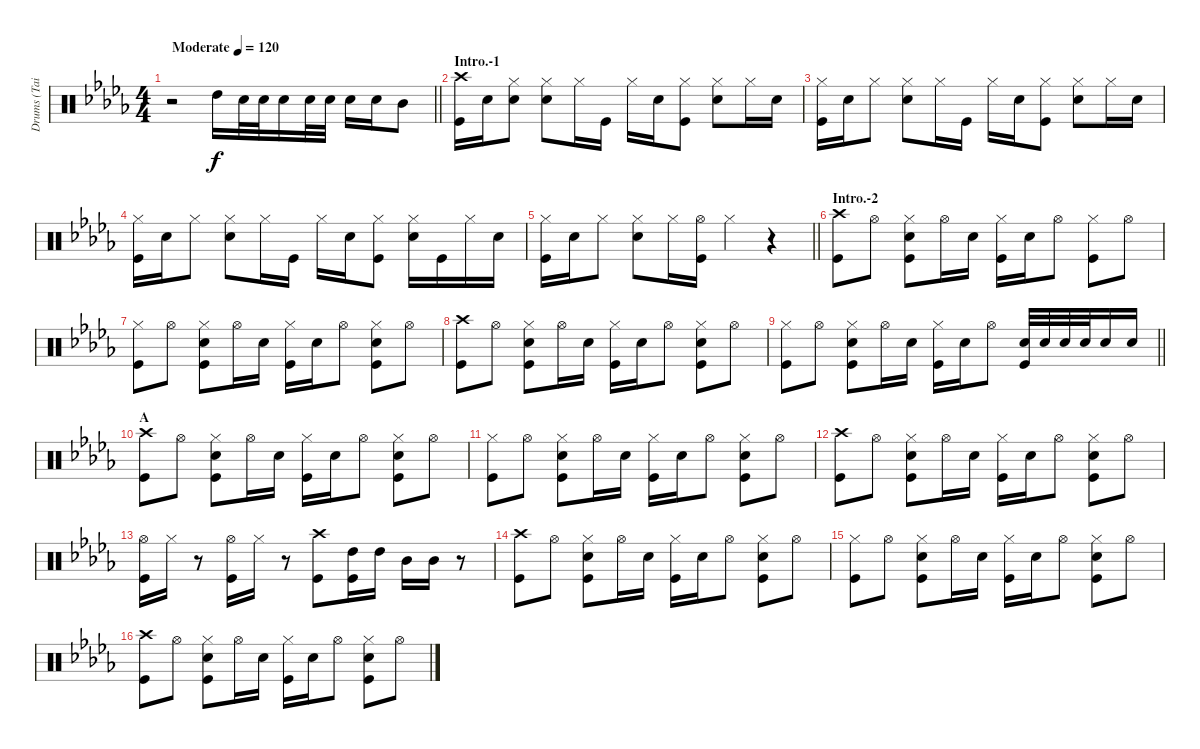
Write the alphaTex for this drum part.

\track ("Drums (Tainaka Ritsu)" "Drums (Tai") {instrument percussion}
\staff {score}
\articulation defaults
\ts (4 4)
\tempo (120 "Moderate")
\clef neutral
\barLineRight lightlight
\ks db
r.2{dy f} "High Tom (hit)".16 "Snare (hit) 2".32 "Snare (hit) 2".32 "Snare (hit) 2".16 "Snare (hit) 2".32 "Snare (hit) 2".32 "Snare (hit) 2".16 "Snare (hit) 2".16 "Mid Tom (hit)".8 |
\section ("" "Intro.-1")
("Crash high (hit)" "Kick (hit)").16 "Snare (hit) 2".16 ("Hi-Hat (closed)" "Snare (hit) 2").8 ("Hi-Hat (closed)" "Snare (hit) 2").8 "Hi-Hat (closed)".16 "Kick (hit)".16 "Hi-Hat (closed)".16 "Snare (hit) 2".16 ("Hi-Hat (closed)" "Kick (hit)").8 ("Hi-Hat (closed)" "Snare (hit) 2").8 "Hi-Hat (closed)".16 "Snare (hit) 2".16 |
("Hi-Hat (closed)" "Kick (hit)").16 "Snare (hit) 2".16 "Hi-Hat (closed)".8 ("Hi-Hat (closed)" "Snare (hit) 2").8 "Hi-Hat (closed)".16 "Kick (hit)".16 "Hi-Hat (closed)".16 "Snare (hit) 2".16 ("Hi-Hat (closed)" "Kick (hit)").8 ("Hi-Hat (closed)" "Snare (hit) 2").8 "Hi-Hat (closed)".16 "Snare (hit) 2".16 |
("Hi-Hat (closed)" "Kick (hit)").16 "Snare (hit) 2".16 "Hi-Hat (closed)".8 ("Hi-Hat (closed)" "Snare (hit) 2").8 "Hi-Hat (closed)".16 "Kick (hit)".16 "Hi-Hat (closed)".16 "Snare (hit) 2".16 ("Hi-Hat (closed)" "Kick (hit)").8 ("Hi-Hat (closed)" "Snare (hit) 2").16 "Kick (hit)".16 "Hi-Hat (closed)".16 "Snare (hit) 2".16 |
\barLineRight lightlight
("Hi-Hat (closed)" "Kick (hit)").16 "Snare (hit) 2".16 "Hi-Hat (closed)".8 ("Hi-Hat (closed)" "Snare (hit) 2").8 "Hi-Hat (closed)".16 ("Hi-Hat (open)" "Kick (hit)").16 "Hi-Hat (closed)".4 r.4 |
\section ("" "Intro.-2")
("Crash high (hit)" "Kick (hit)").8 "Hi-Hat (open)".8 ("Hi-Hat (closed)" "Snare (hit) 2" "Kick (hit)").8 "Hi-Hat (open)".16 "Snare (hit) 2".16 ("Hi-Hat (closed)" "Kick (hit)").16 "Snare (hit) 2".16 "Hi-Hat (open)".8 ("Hi-Hat (closed)" "Kick (hit)").8 "Hi-Hat (open)".8 |
("Hi-Hat (closed)" "Kick (hit)").8 "Hi-Hat (open)".8 ("Hi-Hat (closed)" "Snare (hit) 2" "Kick (hit)").8 "Hi-Hat (open)".16 "Snare (hit) 2".16 ("Hi-Hat (closed)" "Kick (hit)").16 "Snare (hit) 2".16 "Hi-Hat (open)".8 ("Hi-Hat (closed)" "Snare (hit) 2" "Kick (hit)").8 "Hi-Hat (open)".8 |
("Crash high (hit)" "Kick (hit)").8 "Hi-Hat (open)".8 ("Hi-Hat (closed)" "Snare (hit) 2" "Kick (hit)").8 "Hi-Hat (open)".16 "Snare (hit) 2".16 ("Hi-Hat (closed)" "Kick (hit)").16 "Snare (hit) 2".16 "Hi-Hat (open)".8 ("Hi-Hat (closed)" "Snare (hit) 2" "Kick (hit)").8 "Hi-Hat (open)".8 |
\barLineRight lightlight
("Hi-Hat (closed)" "Kick (hit)").8 "Hi-Hat (open)".8 ("Hi-Hat (closed)" "Snare (hit) 2" "Kick (hit)").8 "Hi-Hat (open)".16 "Snare (hit) 2".16 ("Hi-Hat (closed)" "Kick (hit)").16 "Snare (hit) 2".16 "Hi-Hat (open)".8 ("Snare (hit) 2" "Kick (hit)").32 "Snare (hit) 2".32 "Snare (hit) 2".32 "Snare (hit) 2".32 "Snare (hit) 2".16 "Snare (hit) 2".16 |
\section ("" "A")
("Crash high (hit)" "Kick (hit)").8 "Hi-Hat (open)".8 ("Hi-Hat (closed)" "Snare (hit) 2" "Kick (hit)").8 "Hi-Hat (open)".16 "Snare (hit) 2".16 ("Hi-Hat (closed)" "Kick (hit)").16 "Snare (hit) 2".16 "Hi-Hat (open)".8 ("Hi-Hat (closed)" "Snare (hit) 2" "Kick (hit)").8 "Hi-Hat (open)".8 |
("Hi-Hat (closed)" "Kick (hit)").8 "Hi-Hat (open)".8 ("Hi-Hat (closed)" "Snare (hit) 2" "Kick (hit)").8 "Hi-Hat (open)".16 "Snare (hit) 2".16 ("Hi-Hat (closed)" "Kick (hit)").16 "Snare (hit) 2".16 "Hi-Hat (open)".8 ("Hi-Hat (closed)" "Snare (hit) 2" "Kick (hit)").8 "Hi-Hat (open)".8 |
("Crash high (hit)" "Kick (hit)").8 "Hi-Hat (open)".8 ("Hi-Hat (closed)" "Snare (hit) 2" "Kick (hit)").8 "Hi-Hat (open)".16 "Snare (hit) 2".16 ("Hi-Hat (closed)" "Kick (hit)").16 "Snare (hit) 2".16 "Hi-Hat (open)".8 ("Hi-Hat (closed)" "Snare (hit) 2" "Kick (hit)").8 "Hi-Hat (open)".8 |
("Hi-Hat (open)" "Kick (hit)").16 "Hi-Hat (closed)".16 r.8 ("Hi-Hat (open)" "Kick (hit)").16 "Hi-Hat (closed)".16 r.8 ("Crash high (hit)" "Kick (hit)").8 ("High Tom (hit)" "Kick (hit)").16 "High Tom (hit)".16 "Mid Tom (hit)".16 "Mid Tom (hit)".16 r.8 |
("Crash high (hit)" "Kick (hit)").8 "Hi-Hat (open)".8 ("Hi-Hat (closed)" "Snare (hit) 2" "Kick (hit)").8 "Hi-Hat (open)".16 "Snare (hit) 2".16 ("Hi-Hat (closed)" "Kick (hit)").16 "Snare (hit) 2".16 "Hi-Hat (open)".8 ("Hi-Hat (closed)" "Snare (hit) 2" "Kick (hit)").8 "Hi-Hat (open)".8 |
("Hi-Hat (closed)" "Kick (hit)").8 "Hi-Hat (open)".8 ("Hi-Hat (closed)" "Snare (hit) 2" "Kick (hit)").8 "Hi-Hat (open)".16 "Snare (hit) 2".16 ("Hi-Hat (closed)" "Kick (hit)").16 "Snare (hit) 2".16 "Hi-Hat (open)".8 ("Hi-Hat (closed)" "Snare (hit) 2" "Kick (hit)").8 "Hi-Hat (open)".8 |
("Crash high (hit)" "Kick (hit)").8 "Hi-Hat (open)".8 ("Hi-Hat (closed)" "Snare (hit) 2" "Kick (hit)").8 "Hi-Hat (open)".16 "Snare (hit) 2".16 ("Hi-Hat (closed)" "Kick (hit)").16 "Snare (hit) 2".16 "Hi-Hat (open)".8 ("Hi-Hat (closed)" "Snare (hit) 2" "Kick (hit)").8 "Hi-Hat (open)".8
